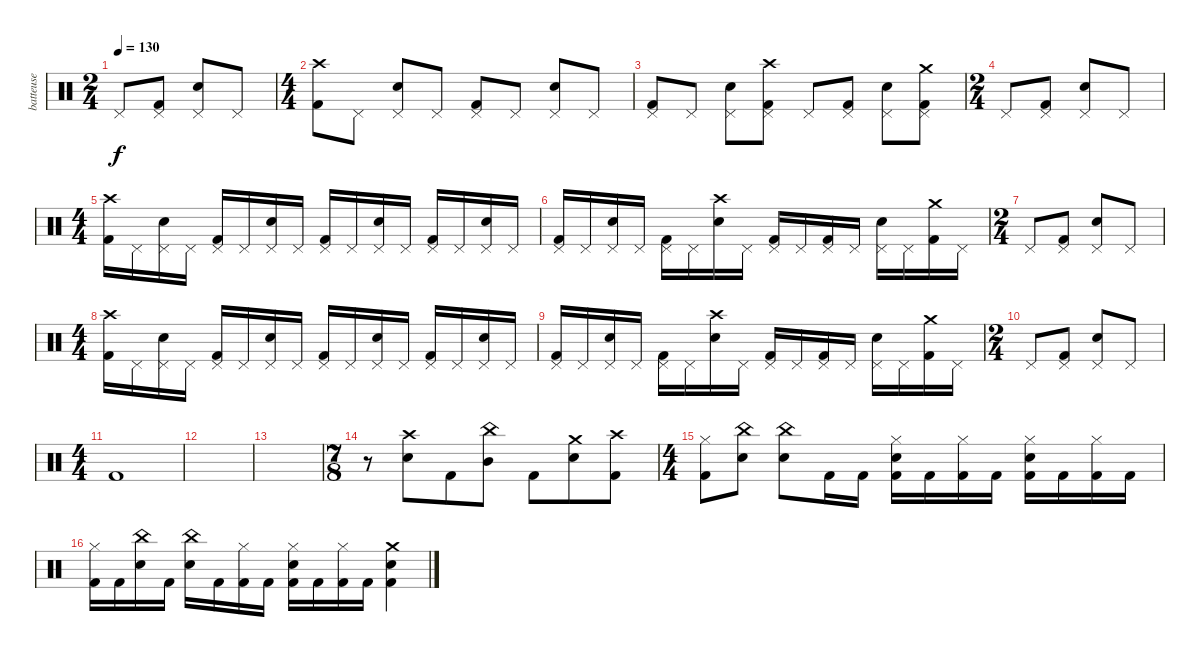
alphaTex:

\track ("batteuse" "batteuse") {instrument percussion}
\staff {score}
\articulation defaults
\ts (2 4)
\tempo 130
\clef neutral
\ks c "Pedal Hi-Hat (hit)".8{dy f}
("Kick (hit) 2" "Pedal Hi-Hat (hit)").8 ("Snare (hit) 2" "Pedal Hi-Hat (hit)").8 "Pedal Hi-Hat (hit)".8 |
\ts (4 4)
("Crash high (hit)" "Kick (hit) 2").8 "Pedal Hi-Hat (hit)".8 ("Snare (hit) 2" "Pedal Hi-Hat (hit)").8 "Pedal Hi-Hat (hit)".8 ("Kick (hit) 2" "Pedal Hi-Hat (hit)").8 "Pedal Hi-Hat (hit)".8 ("Snare (hit) 2" "Pedal Hi-Hat (hit)").8 "Pedal Hi-Hat (hit)".8 |
("Kick (hit) 2" "Pedal Hi-Hat (hit)").8 "Pedal Hi-Hat (hit)".8 ("Snare (hit) 2" "Pedal Hi-Hat (hit)").8 ("Crash high (hit)" "Kick (hit) 2" "Pedal Hi-Hat (hit)").8 "Pedal Hi-Hat (hit)".8 ("Kick (hit) 2" "Pedal Hi-Hat (hit)").8 ("Snare (hit) 2" "Pedal Hi-Hat (hit)").8 ("Crash medium (hit)" "Kick (hit) 2" "Pedal Hi-Hat (hit)").8 |
\ts (2 4)
"Pedal Hi-Hat (hit)".8 ("Kick (hit) 2" "Pedal Hi-Hat (hit)").8 ("Snare (hit) 2" "Pedal Hi-Hat (hit)").8 "Pedal Hi-Hat (hit)".8 |
\ts (4 4)
("Crash high (hit)" "Kick (hit) 2").16 "Pedal Hi-Hat (hit)".16 ("Snare (hit) 2" "Pedal Hi-Hat (hit)").16 "Pedal Hi-Hat (hit)".16 ("Kick (hit) 2" "Pedal Hi-Hat (hit)").16 "Pedal Hi-Hat (hit)".16 ("Snare (hit) 2" "Pedal Hi-Hat (hit)").16 "Pedal Hi-Hat (hit)".16 ("Kick (hit) 2" "Pedal Hi-Hat (hit)").16 "Pedal Hi-Hat (hit)".16 ("Snare (hit) 2" "Pedal Hi-Hat (hit)").16 "Pedal Hi-Hat (hit)".16 ("Kick (hit) 2" "Pedal Hi-Hat (hit)").16 "Pedal Hi-Hat (hit)".16 ("Snare (hit) 2" "Pedal Hi-Hat (hit)").16 "Pedal Hi-Hat (hit)".16 |
("Kick (hit) 2" "Pedal Hi-Hat (hit)").16 "Pedal Hi-Hat (hit)".16 ("Snare (hit) 2" "Pedal Hi-Hat (hit)").16 "Pedal Hi-Hat (hit)".16 ("Kick (hit) 2" "Pedal Hi-Hat (hit)").16 "Pedal Hi-Hat (hit)".16 ("Crash high (hit)" "Snare (hit) 2").16 "Pedal Hi-Hat (hit)".16 ("Kick (hit) 2" "Pedal Hi-Hat (hit)").16 "Pedal Hi-Hat (hit)".16 ("Kick (hit) 2" "Pedal Hi-Hat (hit)").16 "Pedal Hi-Hat (hit)".16 ("Snare (hit) 2" "Pedal Hi-Hat (hit)").16 "Pedal Hi-Hat (hit)".16 ("Crash medium (hit)" "Kick (hit) 2").16 "Pedal Hi-Hat (hit)".16 |
\ts (2 4)
"Pedal Hi-Hat (hit)".8 ("Kick (hit) 2" "Pedal Hi-Hat (hit)").8 ("Snare (hit) 2" "Pedal Hi-Hat (hit)").8 "Pedal Hi-Hat (hit)".8 |
\ts (4 4)
("Crash high (hit)" "Kick (hit) 2").16 "Pedal Hi-Hat (hit)".16 ("Snare (hit) 2" "Pedal Hi-Hat (hit)").16 "Pedal Hi-Hat (hit)".16 ("Kick (hit) 2" "Pedal Hi-Hat (hit)").16 "Pedal Hi-Hat (hit)".16 ("Snare (hit) 2" "Pedal Hi-Hat (hit)").16 "Pedal Hi-Hat (hit)".16 ("Kick (hit) 2" "Pedal Hi-Hat (hit)").16 "Pedal Hi-Hat (hit)".16 ("Snare (hit) 2" "Pedal Hi-Hat (hit)").16 "Pedal Hi-Hat (hit)".16 ("Kick (hit) 2" "Pedal Hi-Hat (hit)").16 "Pedal Hi-Hat (hit)".16 ("Snare (hit) 2" "Pedal Hi-Hat (hit)").16 "Pedal Hi-Hat (hit)".16 |
("Kick (hit) 2" "Pedal Hi-Hat (hit)").16 "Pedal Hi-Hat (hit)".16 ("Snare (hit) 2" "Pedal Hi-Hat (hit)").16 "Pedal Hi-Hat (hit)".16 ("Kick (hit) 2" "Pedal Hi-Hat (hit)").16 "Pedal Hi-Hat (hit)".16 ("Crash high (hit)" "Snare (hit) 2").16 "Pedal Hi-Hat (hit)".16 ("Kick (hit) 2" "Pedal Hi-Hat (hit)").16 "Pedal Hi-Hat (hit)".16 ("Kick (hit) 2" "Pedal Hi-Hat (hit)").16 "Pedal Hi-Hat (hit)".16 ("Snare (hit) 2" "Pedal Hi-Hat (hit)").16 "Pedal Hi-Hat (hit)".16 ("Crash medium (hit)" "Kick (hit) 2").16 "Pedal Hi-Hat (hit)".16 |
\ts (2 4)
"Pedal Hi-Hat (hit)".8 ("Kick (hit) 2" "Pedal Hi-Hat (hit)").8 ("Snare (hit) 2" "Pedal Hi-Hat (hit)").8 "Pedal Hi-Hat (hit)".8 |
\ts (4 4)
"Kick (hit) 2".1 |
|
|
\ts (7 8)
r.8 ("Crash high (hit)" "Snare (hit) 2").8 "Kick (hit) 2".8 ("China (hit)" "Mid Tom (hit)").8 "Kick (hit) 2".8 ("Crash medium (hit)" "Snare (hit) 2").8 ("Crash high (hit)" "Kick (hit) 2").8 |
\ts (4 4)
("Kick (hit) 2" "Hi-Hat (closed)").8 ("China (hit)" "Snare (hit) 2").8 ("China (hit)" "Snare (hit) 2").8 "Kick (hit) 2".16 "Kick (hit) 2".16 ("Snare (hit) 2" "Kick (hit) 2" "Hi-Hat (closed)").16 "Kick (hit) 2".16 ("Kick (hit) 2" "Hi-Hat (closed)").16 "Kick (hit) 2".16 ("Snare (hit) 2" "Kick (hit) 2" "Hi-Hat (closed)").16 "Kick (hit) 2".16 ("Kick (hit) 2" "Hi-Hat (closed)").16 "Kick (hit) 2".16 |
("Kick (hit) 2" "Hi-Hat (closed)").16 "Kick (hit) 2".16 ("China (hit)" "Snare (hit) 2").16 "Kick (hit) 2".16 ("China (hit)" "Snare (hit) 2").16 "Kick (hit) 2".16 ("Kick (hit) 2" "Hi-Hat (closed)").16 "Kick (hit) 2".16 ("Snare (hit) 2" "Kick (hit) 2" "Hi-Hat (closed)").16 "Kick (hit) 2".16 ("Kick (hit) 2" "Hi-Hat (closed)").16 "Kick (hit) 2".16 ("Crash medium (hit)" "Snare (hit) 2" "Kick (hit) 2").4
